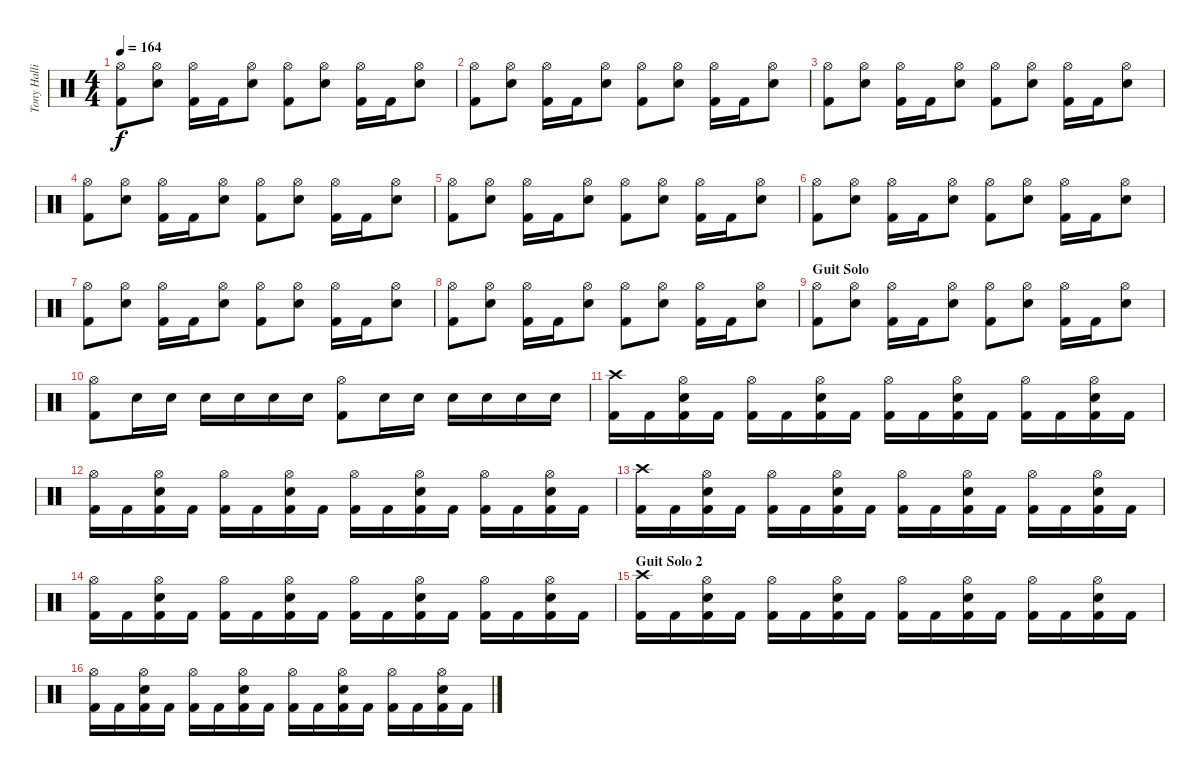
\track ("Tony Hallio - Drums" "Tony Halli") {instrument percussion}
\staff {score}
\articulation defaults
\ts (4 4)
\tempo 164
\clef neutral
\ks c
("Hi-Hat (open)" "Kick (hit) 2").8{dy f} ("Hi-Hat (open)" "Electric Snare (hit)").8 ("Hi-Hat (open)" "Kick (hit) 2").16 "Kick (hit) 2".16 ("Hi-Hat (open)" "Electric Snare (hit)").8 ("Hi-Hat (open)" "Kick (hit) 2").8 ("Hi-Hat (open)" "Electric Snare (hit)").8 ("Hi-Hat (open)" "Kick (hit) 2").16 "Kick (hit) 2".16 ("Hi-Hat (open)" "Electric Snare (hit)").8 |
("Hi-Hat (open)" "Kick (hit) 2").8 ("Hi-Hat (open)" "Electric Snare (hit)").8 ("Hi-Hat (open)" "Kick (hit) 2").16 "Kick (hit) 2".16 ("Hi-Hat (open)" "Electric Snare (hit)").8 ("Hi-Hat (open)" "Kick (hit) 2").8 ("Hi-Hat (open)" "Electric Snare (hit)").8 ("Hi-Hat (open)" "Kick (hit) 2").16 "Kick (hit) 2".16 ("Hi-Hat (open)" "Electric Snare (hit)").8 |
("Hi-Hat (open)" "Kick (hit) 2").8 ("Hi-Hat (open)" "Electric Snare (hit)").8 ("Hi-Hat (open)" "Kick (hit) 2").16 "Kick (hit) 2".16 ("Hi-Hat (open)" "Electric Snare (hit)").8 ("Hi-Hat (open)" "Kick (hit) 2").8 ("Hi-Hat (open)" "Electric Snare (hit)").8 ("Hi-Hat (open)" "Kick (hit) 2").16 "Kick (hit) 2".16 ("Hi-Hat (open)" "Electric Snare (hit)").8 |
("Hi-Hat (open)" "Kick (hit) 2").8 ("Hi-Hat (open)" "Electric Snare (hit)").8 ("Hi-Hat (open)" "Kick (hit) 2").16 "Kick (hit) 2".16 ("Hi-Hat (open)" "Electric Snare (hit)").8 ("Hi-Hat (open)" "Kick (hit) 2").8 ("Hi-Hat (open)" "Electric Snare (hit)").8 ("Hi-Hat (open)" "Kick (hit) 2").16 "Kick (hit) 2".16 ("Hi-Hat (open)" "Electric Snare (hit)").8 |
("Hi-Hat (open)" "Kick (hit) 2").8 ("Hi-Hat (open)" "Electric Snare (hit)").8 ("Hi-Hat (open)" "Kick (hit) 2").16 "Kick (hit) 2".16 ("Hi-Hat (open)" "Electric Snare (hit)").8 ("Hi-Hat (open)" "Kick (hit) 2").8 ("Hi-Hat (open)" "Electric Snare (hit)").8 ("Hi-Hat (open)" "Kick (hit) 2").16 "Kick (hit) 2".16 ("Hi-Hat (open)" "Electric Snare (hit)").8 |
("Hi-Hat (open)" "Kick (hit) 2").8 ("Hi-Hat (open)" "Electric Snare (hit)").8 ("Hi-Hat (open)" "Kick (hit) 2").16 "Kick (hit) 2".16 ("Hi-Hat (open)" "Electric Snare (hit)").8 ("Hi-Hat (open)" "Kick (hit) 2").8 ("Hi-Hat (open)" "Electric Snare (hit)").8 ("Hi-Hat (open)" "Kick (hit) 2").16 "Kick (hit) 2".16 ("Hi-Hat (open)" "Electric Snare (hit)").8 |
("Hi-Hat (open)" "Kick (hit) 2").8 ("Hi-Hat (open)" "Electric Snare (hit)").8 ("Hi-Hat (open)" "Kick (hit) 2").16 "Kick (hit) 2".16 ("Hi-Hat (open)" "Electric Snare (hit)").8 ("Hi-Hat (open)" "Kick (hit) 2").8 ("Hi-Hat (open)" "Electric Snare (hit)").8 ("Hi-Hat (open)" "Kick (hit) 2").16 "Kick (hit) 2".16 ("Hi-Hat (open)" "Electric Snare (hit)").8 |
("Hi-Hat (open)" "Kick (hit) 2").8 ("Hi-Hat (open)" "Electric Snare (hit)").8 ("Hi-Hat (open)" "Kick (hit) 2").16 "Kick (hit) 2".16 ("Hi-Hat (open)" "Electric Snare (hit)").8 ("Hi-Hat (open)" "Kick (hit) 2").8 ("Hi-Hat (open)" "Electric Snare (hit)").8 ("Hi-Hat (open)" "Kick (hit) 2").16 "Kick (hit) 2".16 ("Hi-Hat (open)" "Electric Snare (hit)").8 |
\section ("" "Guit Solo ")
("Hi-Hat (open)" "Kick (hit) 2").8 ("Hi-Hat (open)" "Electric Snare (hit)").8 ("Hi-Hat (open)" "Kick (hit) 2").16 "Kick (hit) 2".16 ("Hi-Hat (open)" "Electric Snare (hit)").8 ("Hi-Hat (open)" "Kick (hit) 2").8 ("Hi-Hat (open)" "Electric Snare (hit)").8 ("Hi-Hat (open)" "Kick (hit) 2").16 "Kick (hit) 2".16 ("Hi-Hat (open)" "Electric Snare (hit)").8 |
("Hi-Hat (open)" "Kick (hit) 2").8 "Electric Snare (hit)".16 "Electric Snare (hit)".16 "Electric Snare (hit)".16 "Electric Snare (hit)".16 "Electric Snare (hit)".16 "Electric Snare (hit)".16 ("Hi-Hat (open)" "Kick (hit) 2").8 "Electric Snare (hit)".16 "Electric Snare (hit)".16 "Electric Snare (hit)".16 "Electric Snare (hit)".16 "Electric Snare (hit)".16 "Electric Snare (hit)".16 |
("Crash high (hit)" "Kick (hit) 2").16 "Kick (hit) 2".16 ("Hi-Hat (open)" "Electric Snare (hit)" "Kick (hit) 2").16 "Kick (hit) 2".16 ("Hi-Hat (open)" "Kick (hit) 2").16 "Kick (hit) 2".16 ("Hi-Hat (open)" "Electric Snare (hit)" "Kick (hit) 2").16 "Kick (hit) 2".16 ("Hi-Hat (open)" "Kick (hit) 2").16 "Kick (hit) 2".16 ("Hi-Hat (open)" "Electric Snare (hit)" "Kick (hit) 2").16 "Kick (hit) 2".16 ("Hi-Hat (open)" "Kick (hit) 2").16 "Kick (hit) 2".16 ("Hi-Hat (open)" "Electric Snare (hit)" "Kick (hit) 2").16 "Kick (hit) 2".16 |
("Hi-Hat (open)" "Kick (hit) 2").16 "Kick (hit) 2".16 ("Hi-Hat (open)" "Electric Snare (hit)" "Kick (hit) 2").16 "Kick (hit) 2".16 ("Hi-Hat (open)" "Kick (hit) 2").16 "Kick (hit) 2".16 ("Hi-Hat (open)" "Electric Snare (hit)" "Kick (hit) 2").16 "Kick (hit) 2".16 ("Hi-Hat (open)" "Kick (hit) 2").16 "Kick (hit) 2".16 ("Hi-Hat (open)" "Electric Snare (hit)" "Kick (hit) 2").16 "Kick (hit) 2".16 ("Hi-Hat (open)" "Kick (hit) 2").16 "Kick (hit) 2".16 ("Hi-Hat (open)" "Electric Snare (hit)" "Kick (hit) 2").16 "Kick (hit) 2".16 |
("Crash high (hit)" "Kick (hit) 2").16 "Kick (hit) 2".16 ("Hi-Hat (open)" "Electric Snare (hit)" "Kick (hit) 2").16 "Kick (hit) 2".16 ("Hi-Hat (open)" "Kick (hit) 2").16 "Kick (hit) 2".16 ("Hi-Hat (open)" "Electric Snare (hit)" "Kick (hit) 2").16 "Kick (hit) 2".16 ("Hi-Hat (open)" "Kick (hit) 2").16 "Kick (hit) 2".16 ("Hi-Hat (open)" "Electric Snare (hit)" "Kick (hit) 2").16 "Kick (hit) 2".16 ("Hi-Hat (open)" "Kick (hit) 2").16 "Kick (hit) 2".16 ("Hi-Hat (open)" "Electric Snare (hit)" "Kick (hit) 2").16 "Kick (hit) 2".16 |
("Hi-Hat (open)" "Kick (hit) 2").16 "Kick (hit) 2".16 ("Hi-Hat (open)" "Electric Snare (hit)" "Kick (hit) 2").16 "Kick (hit) 2".16 ("Hi-Hat (open)" "Kick (hit) 2").16 "Kick (hit) 2".16 ("Hi-Hat (open)" "Electric Snare (hit)" "Kick (hit) 2").16 "Kick (hit) 2".16 ("Hi-Hat (open)" "Kick (hit) 2").16 "Kick (hit) 2".16 ("Hi-Hat (open)" "Electric Snare (hit)" "Kick (hit) 2").16 "Kick (hit) 2".16 ("Hi-Hat (open)" "Kick (hit) 2").16 "Kick (hit) 2".16 ("Hi-Hat (open)" "Electric Snare (hit)" "Kick (hit) 2").16 "Kick (hit) 2".16 |
\section ("" "Guit Solo 2")
("Crash high (hit)" "Kick (hit) 2").16 "Kick (hit) 2".16 ("Hi-Hat (open)" "Electric Snare (hit)" "Kick (hit) 2").16 "Kick (hit) 2".16 ("Hi-Hat (open)" "Kick (hit) 2").16 "Kick (hit) 2".16 ("Hi-Hat (open)" "Electric Snare (hit)" "Kick (hit) 2").16 "Kick (hit) 2".16 ("Hi-Hat (open)" "Kick (hit) 2").16 "Kick (hit) 2".16 ("Hi-Hat (open)" "Electric Snare (hit)" "Kick (hit) 2").16 "Kick (hit) 2".16 ("Hi-Hat (open)" "Kick (hit) 2").16 "Kick (hit) 2".16 ("Hi-Hat (open)" "Electric Snare (hit)" "Kick (hit) 2").16 "Kick (hit) 2".16 |
("Hi-Hat (open)" "Kick (hit) 2").16 "Kick (hit) 2".16 ("Hi-Hat (open)" "Electric Snare (hit)" "Kick (hit) 2").16 "Kick (hit) 2".16 ("Hi-Hat (open)" "Kick (hit) 2").16 "Kick (hit) 2".16 ("Hi-Hat (open)" "Electric Snare (hit)" "Kick (hit) 2").16 "Kick (hit) 2".16 ("Hi-Hat (open)" "Kick (hit) 2").16 "Kick (hit) 2".16 ("Hi-Hat (open)" "Electric Snare (hit)" "Kick (hit) 2").16 "Kick (hit) 2".16 ("Hi-Hat (open)" "Kick (hit) 2").16 "Kick (hit) 2".16 ("Hi-Hat (open)" "Electric Snare (hit)" "Kick (hit) 2").16 "Kick (hit) 2".16
